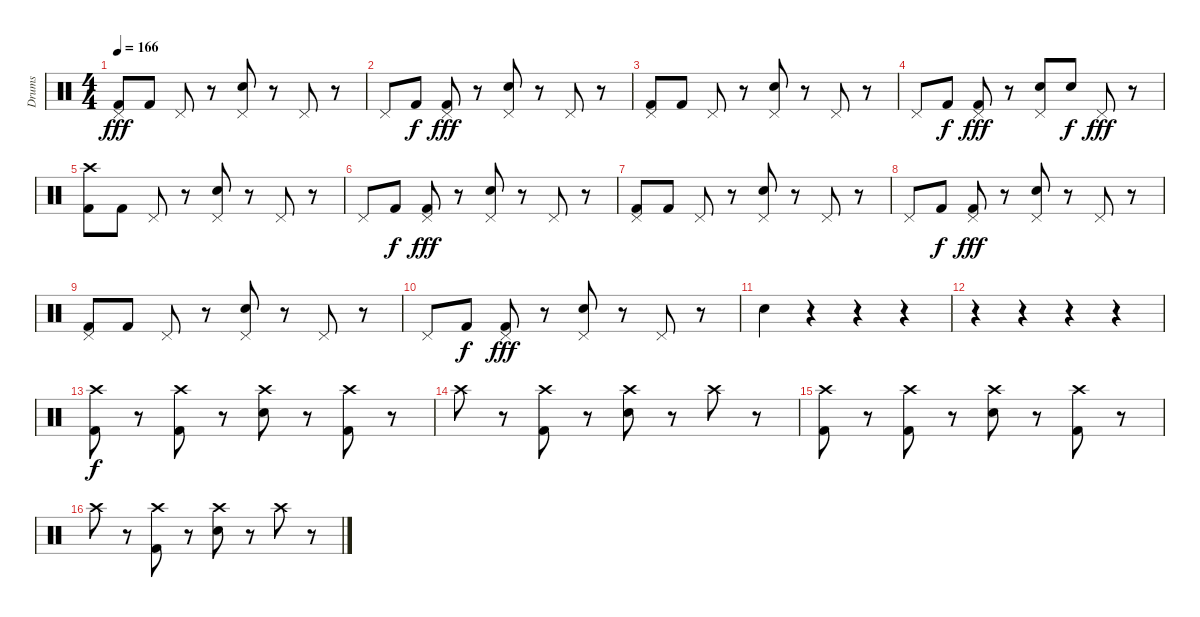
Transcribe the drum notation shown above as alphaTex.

\track ("Drums" "Drums") {instrument percussion}
\staff {score}
\articulation defaults
\ts (4 4)
\tempo 166
\clef neutral
\ks c
("Pedal Hi-Hat (hit)" "Kick (hit) 2").8{dy fff} "Kick (hit) 2".8 "Pedal Hi-Hat (hit)".8 r.8 ("Pedal Hi-Hat (hit)" "Snare (hit) 2").8 r.8 "Pedal Hi-Hat (hit)".8 r.8 |
"Pedal Hi-Hat (hit)".8 "Kick (hit) 2".8{dy f} ("Pedal Hi-Hat (hit)" "Kick (hit) 2").8{dy fff} r.8 ("Pedal Hi-Hat (hit)" "Snare (hit) 2").8 r.8 "Pedal Hi-Hat (hit)".8 r.8 |
("Pedal Hi-Hat (hit)" "Kick (hit) 2").8 "Kick (hit) 2".8 "Pedal Hi-Hat (hit)".8 r.8 ("Pedal Hi-Hat (hit)" "Snare (hit) 2").8 r.8 "Pedal Hi-Hat (hit)".8 r.8 |
"Pedal Hi-Hat (hit)".8 "Kick (hit) 2".8{dy f} ("Pedal Hi-Hat (hit)" "Kick (hit) 2").8{dy fff} r.8 ("Pedal Hi-Hat (hit)" "Snare (hit) 2").8 "Snare (hit) 2".8{dy f} "Pedal Hi-Hat (hit)".8{dy fff} r.8 |
("Crash high (hit)" "Kick (hit) 2").8 "Kick (hit) 2".8 "Pedal Hi-Hat (hit)".8 r.8 ("Pedal Hi-Hat (hit)" "Snare (hit) 2").8 r.8 "Pedal Hi-Hat (hit)".8 r.8 |
"Pedal Hi-Hat (hit)".8 "Kick (hit) 2".8{dy f} ("Pedal Hi-Hat (hit)" "Kick (hit) 2").8{dy fff} r.8 ("Pedal Hi-Hat (hit)" "Snare (hit) 2").8 r.8 "Pedal Hi-Hat (hit)".8 r.8 |
("Pedal Hi-Hat (hit)" "Kick (hit) 2").8 "Kick (hit) 2".8 "Pedal Hi-Hat (hit)".8 r.8 ("Pedal Hi-Hat (hit)" "Snare (hit) 2").8 r.8 "Pedal Hi-Hat (hit)".8 r.8 |
"Pedal Hi-Hat (hit)".8 "Kick (hit) 2".8{dy f} ("Pedal Hi-Hat (hit)" "Kick (hit) 2").8{dy fff} r.8 ("Pedal Hi-Hat (hit)" "Snare (hit) 2").8 r.8 "Pedal Hi-Hat (hit)".8 r.8 |
("Pedal Hi-Hat (hit)" "Kick (hit) 2").8 "Kick (hit) 2".8 "Pedal Hi-Hat (hit)".8 r.8 ("Pedal Hi-Hat (hit)" "Snare (hit) 2").8 r.8 "Pedal Hi-Hat (hit)".8 r.8 |
"Pedal Hi-Hat (hit)".8 "Kick (hit) 2".8{dy f} ("Pedal Hi-Hat (hit)" "Kick (hit) 2").8{dy fff} r.8 ("Pedal Hi-Hat (hit)" "Snare (hit) 2").8 r.8 "Pedal Hi-Hat (hit)".8 r.8 |
"Snare (hit) 2".4 r.4 r.4 r.4 |
r.4 r.4 r.4 r.4 |
("Crash high (hit)" "Kick (hit) 2").8{dy f} r.8 ("Crash high (hit)" "Kick (hit) 2").8 r.8 ("Crash high (hit)" "Snare (hit) 2").8 r.8 ("Crash high (hit)" "Kick (hit) 2").8 r.8 |
"Crash high (hit)".8 r.8 ("Crash high (hit)" "Kick (hit) 2").8 r.8 ("Crash high (hit)" "Snare (hit) 2").8 r.8 "Crash high (hit)".8 r.8 |
("Crash high (hit)" "Kick (hit) 2").8 r.8 ("Crash high (hit)" "Kick (hit) 2").8 r.8 ("Crash high (hit)" "Snare (hit) 2").8 r.8 ("Crash high (hit)" "Kick (hit) 2").8 r.8 |
"Crash high (hit)".8 r.8 ("Crash high (hit)" "Kick (hit) 2").8 r.8 ("Crash high (hit)" "Snare (hit) 2").8 r.8 "Crash high (hit)".8 r.8
